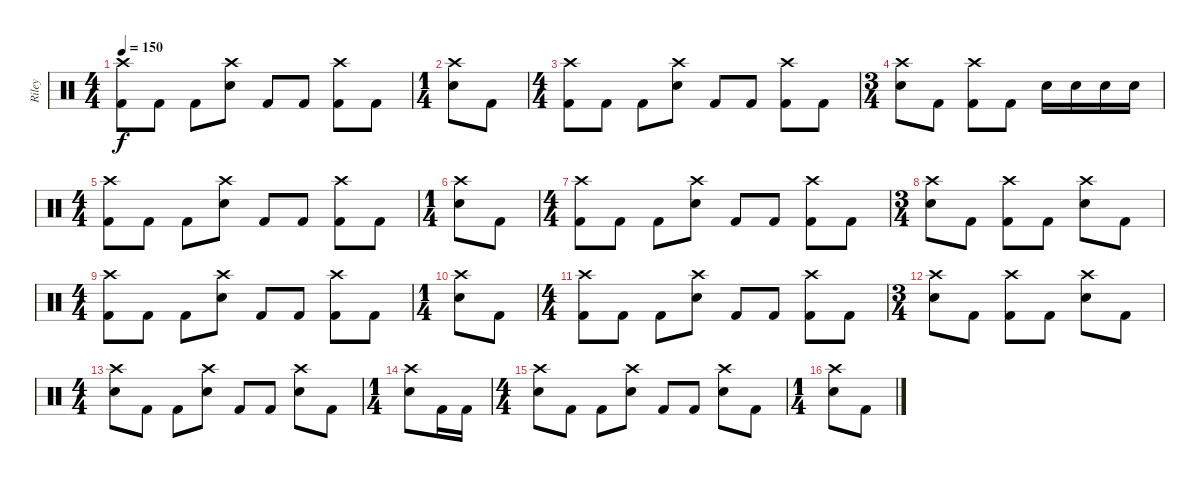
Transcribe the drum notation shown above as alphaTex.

\track ("Riley" "Riley") {instrument percussion}
\staff {score}
\articulation defaults
\ts (4 4)
\tempo 150
\clef neutral
\ks c
("Crash high (hit)" "Kick (hit) 2").8{dy f} "Kick (hit) 2".8 "Kick (hit) 2".8 ("Crash high (hit)" "Electric Snare (hit)").8 "Kick (hit) 2".8 "Kick (hit) 2".8 ("Crash high (hit)" "Kick (hit) 2").8 "Kick (hit) 2".8 |
\ts (1 4)
("Crash high (hit)" "Electric Snare (hit)").8 "Kick (hit) 2".8 |
\ts (4 4)
("Crash high (hit)" "Kick (hit) 2").8 "Kick (hit) 2".8 "Kick (hit) 2".8 ("Crash high (hit)" "Electric Snare (hit)").8 "Kick (hit) 2".8 "Kick (hit) 2".8 ("Crash high (hit)" "Kick (hit) 2").8 "Kick (hit) 2".8 |
\ts (3 4)
("Crash high (hit)" "Electric Snare (hit)").8 "Kick (hit) 2".8 ("Crash high (hit)" "Kick (hit) 2").8 "Kick (hit) 2".8 "Electric Snare (hit)".16 "Electric Snare (hit)".16 "Electric Snare (hit)".16 "Electric Snare (hit)".16 |
\ts (4 4)
("Crash high (hit)" "Kick (hit) 2").8 "Kick (hit) 2".8 "Kick (hit) 2".8 ("Crash high (hit)" "Electric Snare (hit)").8 "Kick (hit) 2".8 "Kick (hit) 2".8 ("Crash high (hit)" "Kick (hit) 2").8 "Kick (hit) 2".8 |
\ts (1 4)
("Crash high (hit)" "Electric Snare (hit)").8 "Kick (hit) 2".8 |
\ts (4 4)
("Crash high (hit)" "Kick (hit) 2").8 "Kick (hit) 2".8 "Kick (hit) 2".8 ("Crash high (hit)" "Electric Snare (hit)").8 "Kick (hit) 2".8 "Kick (hit) 2".8 ("Crash high (hit)" "Kick (hit) 2").8 "Kick (hit) 2".8 |
\ts (3 4)
("Crash high (hit)" "Electric Snare (hit)").8 "Kick (hit) 2".8 ("Crash high (hit)" "Kick (hit) 2").8 "Kick (hit) 2".8 ("Crash high (hit)" "Electric Snare (hit)").8 "Kick (hit) 2".8 |
\ts (4 4)
("Crash high (hit)" "Kick (hit) 2").8 "Kick (hit) 2".8 "Kick (hit) 2".8 ("Crash high (hit)" "Electric Snare (hit)").8 "Kick (hit) 2".8 "Kick (hit) 2".8 ("Crash high (hit)" "Kick (hit) 2").8 "Kick (hit) 2".8 |
\ts (1 4)
("Crash high (hit)" "Electric Snare (hit)").8 "Kick (hit) 2".8 |
\ts (4 4)
("Crash high (hit)" "Kick (hit) 2").8 "Kick (hit) 2".8 "Kick (hit) 2".8 ("Crash high (hit)" "Electric Snare (hit)").8 "Kick (hit) 2".8 "Kick (hit) 2".8 ("Crash high (hit)" "Kick (hit) 2").8 "Kick (hit) 2".8 |
\ts (3 4)
("Crash high (hit)" "Electric Snare (hit)").8 "Kick (hit) 2".8 ("Crash high (hit)" "Kick (hit) 2").8 "Kick (hit) 2".8 ("Crash high (hit)" "Electric Snare (hit)").8 "Kick (hit) 2".8 |
\ts (4 4)
("Crash high (hit)" "Electric Snare (hit)").8 "Kick (hit) 2".8 "Kick (hit) 2".8 ("Crash high (hit)" "Electric Snare (hit)").8 "Kick (hit) 2".8 "Kick (hit) 2".8 ("Crash high (hit)" "Electric Snare (hit)").8 "Kick (hit) 2".8 |
\ts (1 4)
("Crash high (hit)" "Electric Snare (hit)").8 "Kick (hit) 2".16 "Kick (hit) 2".16 |
\ts (4 4)
("Crash high (hit)" "Electric Snare (hit)").8 "Kick (hit) 2".8 "Kick (hit) 2".8 ("Crash high (hit)" "Electric Snare (hit)").8 "Kick (hit) 2".8 "Kick (hit) 2".8 ("Crash high (hit)" "Electric Snare (hit)").8 "Kick (hit) 2".8 |
\ts (1 4)
("Crash high (hit)" "Electric Snare (hit)").8 "Kick (hit) 2".8
